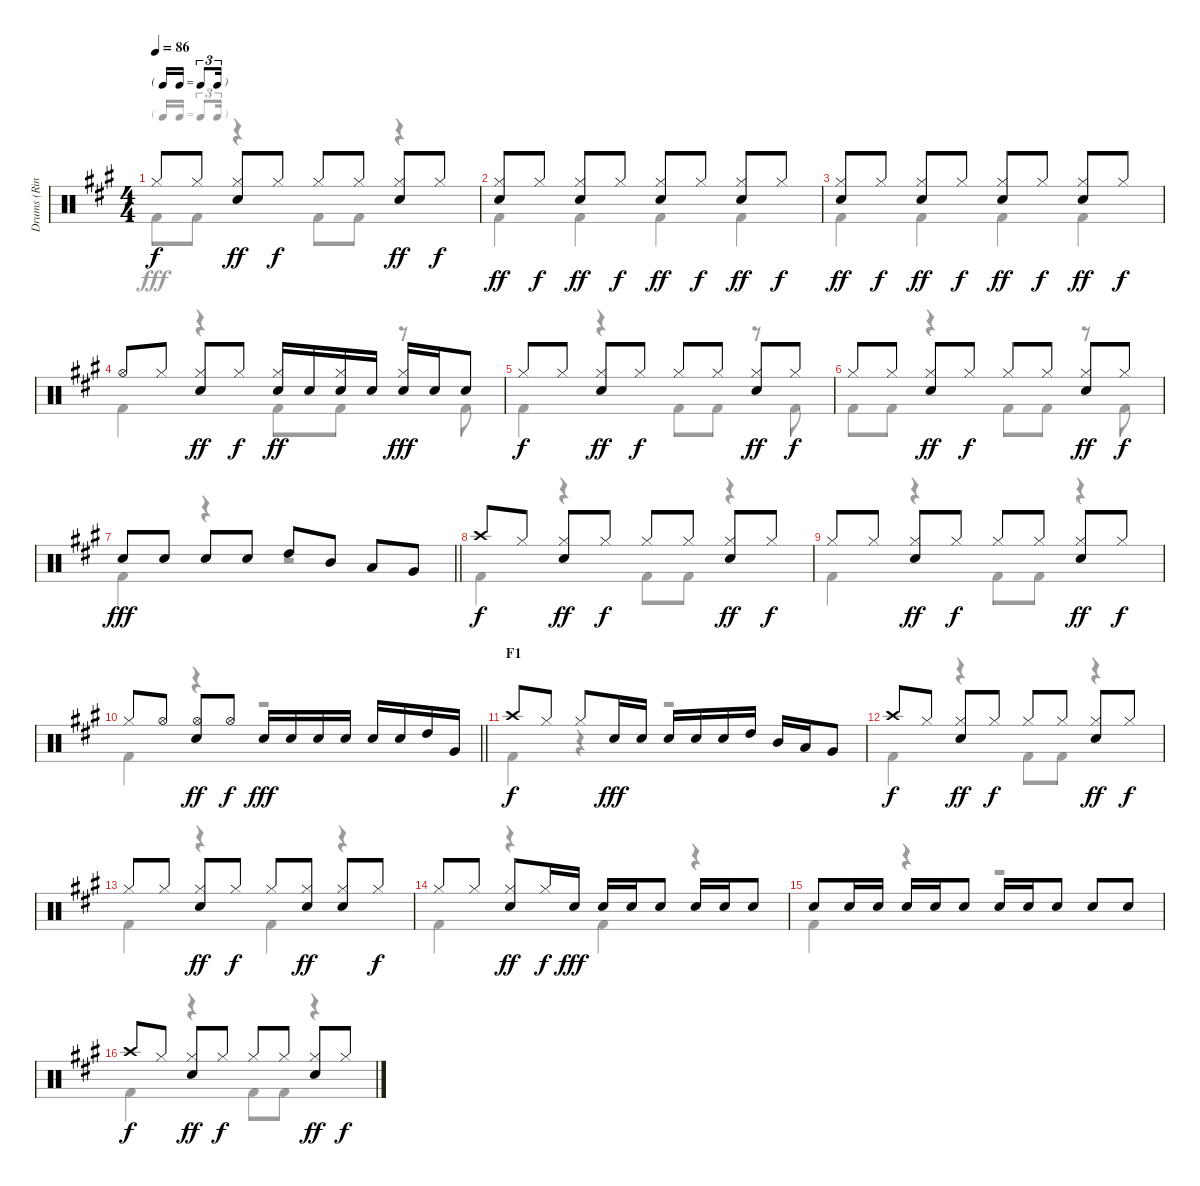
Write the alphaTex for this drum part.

\track ("Drums (Ringo Starr)" "Drums (Rin") {instrument percussion}
\staff {score}
\articulation defaults
\voice
\ts (4 4)
\tf triplet16th
\tempo 86
\clef neutral
\ks a "Hi-Hat (closed)".8{dy f} "Hi-Hat (closed)".8
("Hi-Hat (closed)" "Snare (hit) 2").8{dy ff} "Hi-Hat (closed)".8{dy f} "Hi-Hat (closed)".8 "Hi-Hat (closed)".8 ("Hi-Hat (closed)" "Snare (hit) 2").8{dy ff} "Hi-Hat (closed)".8{dy f} |
("Hi-Hat (closed)" "Snare (hit) 2").8{dy ff} "Hi-Hat (closed)".8{dy f} ("Hi-Hat (closed)" "Snare (hit) 2").8{dy ff} "Hi-Hat (closed)".8{dy f} ("Hi-Hat (closed)" "Snare (hit) 2").8{dy ff} "Hi-Hat (closed)".8{dy f} ("Hi-Hat (closed)" "Snare (hit) 2").8{dy ff} "Hi-Hat (closed)".8{dy f} |
("Hi-Hat (closed)" "Snare (hit) 2").8{dy ff} "Hi-Hat (closed)".8{dy f} ("Hi-Hat (closed)" "Snare (hit) 2").8{dy ff} "Hi-Hat (closed)".8{dy f} ("Hi-Hat (closed)" "Snare (hit) 2").8{dy ff} "Hi-Hat (closed)".8{dy f} ("Hi-Hat (closed)" "Snare (hit) 2").8{dy ff} "Hi-Hat (closed)".8{dy f} |
"Hi-Hat (open)".8 "Hi-Hat (closed)".8 ("Hi-Hat (closed)" "Snare (hit) 2").8{dy ff} "Hi-Hat (closed)".8{dy f} ("Hi-Hat (closed)" "Snare (hit) 2").16{dy ff} "Snare (hit) 2".16 ("Hi-Hat (closed)" "Snare (hit) 2").16 "Snare (hit) 2".16 ("Hi-Hat (closed)" "Snare (hit) 2").16{dy fff} "Snare (hit) 2".16 "Snare (hit) 2".8 |
"Hi-Hat (closed)".8{dy f} "Hi-Hat (closed)".8 ("Hi-Hat (closed)" "Snare (hit) 2").8{dy ff} "Hi-Hat (closed)".8{dy f} "Hi-Hat (closed)".8 "Hi-Hat (closed)".8 ("Hi-Hat (closed)" "Snare (hit) 2").8{dy ff} "Hi-Hat (closed)".8{dy f} |
"Hi-Hat (closed)".8 "Hi-Hat (closed)".8 ("Hi-Hat (closed)" "Snare (hit) 2").8{dy ff} "Hi-Hat (closed)".8{dy f} "Hi-Hat (closed)".8 "Hi-Hat (closed)".8 ("Hi-Hat (closed)" "Snare (hit) 2").8{dy ff} "Hi-Hat (closed)".8{dy f} |
\barLineRight lightlight "Snare (hit) 2".8{dy fff} "Snare (hit) 2".8 "Snare (hit) 2".8 "Snare (hit) 2".8 "High Tom (hit)".8 "Mid Tom (hit)".8 "Low Tom (hit)".8 "Very Low Tom (hit)".8
|
"Crash high (hit)".8{dy f} "Hi-Hat (closed)".8 ("Hi-Hat (closed)" "Snare (hit) 2").8{dy ff} "Hi-Hat (closed)".8{dy f} "Hi-Hat (closed)".8 "Hi-Hat (closed)".8 ("Hi-Hat (closed)" "Snare (hit) 2").8{dy ff} "Hi-Hat (closed)".8{dy f} |
"Hi-Hat (closed)".8 "Hi-Hat (closed)".8 ("Hi-Hat (closed)" "Snare (hit) 2").8{dy ff} "Hi-Hat (closed)".8{dy f} "Hi-Hat (closed)".8 "Hi-Hat (closed)".8 ("Hi-Hat (closed)" "Snare (hit) 2").8{dy ff} "Hi-Hat (closed)".8{dy f} |
\barLineRight lightlight "Hi-Hat (closed)".8 "Hi-Hat (open)".8
("Hi-Hat (open)" "Snare (hit) 2").8{dy ff} "Hi-Hat (open)".8{dy f} "Snare (hit) 2".16{dy fff} "Snare (hit) 2".16 "Snare (hit) 2".16 "Snare (hit) 2".16 "Snare (hit) 2".16 "Snare (hit) 2".16 "High Tom (hit)".16 "Very Low Tom (hit)".16 |
\section ("" "F1")
"Crash high (hit)".8{dy f volume 14} "Hi-Hat (closed)".8 "Hi-Hat (closed)".8 "Snare (hit) 2".16{dy fff} "Snare (hit) 2".16 "Snare (hit) 2".16 "Snare (hit) 2".16 "Snare (hit) 2".16 "High Tom (hit)".16 "Mid Tom (hit)".16 "Low Tom (hit)".16 "Very Low Tom (hit)".8 |
"Crash high (hit)".8{dy f} "Hi-Hat (closed)".8 ("Hi-Hat (closed)" "Snare (hit) 2").8{dy ff} "Hi-Hat (closed)".8{dy f} "Hi-Hat (closed)".8 "Hi-Hat (closed)".8 ("Hi-Hat (closed)" "Snare (hit) 2").8{dy ff} "Hi-Hat (closed)".8{dy f} |
"Hi-Hat (closed)".8 "Hi-Hat (closed)".8 ("Hi-Hat (closed)" "Snare (hit) 2").8{dy ff} "Hi-Hat (closed)".8{dy f} "Hi-Hat (closed)".8 ("Hi-Hat (closed)" "Snare (hit) 2").8{dy ff} ("Hi-Hat (closed)" "Snare (hit) 2").8{volume 12} "Hi-Hat (closed)".8{dy f} |
"Hi-Hat (closed)".8 "Hi-Hat (closed)".8 ("Hi-Hat (closed)" "Snare (hit) 2").8{dy ff} "Hi-Hat (closed)".16{dy f} "Snare (hit) 2".16{dy fff} "Snare (hit) 2".16 "Snare (hit) 2".16 "Snare (hit) 2".8 "Snare (hit) 2".16 "Snare (hit) 2".16 "Snare (hit) 2".8 |
"Snare (hit) 2".8 "Snare (hit) 2".16 "Snare (hit) 2".16 "Snare (hit) 2".16 "Snare (hit) 2".16 "Snare (hit) 2".8 "Snare (hit) 2".16 "Snare (hit) 2".16 "Snare (hit) 2".8 "Snare (hit) 2".8 "Snare (hit) 2".8 |
"Crash high (hit)".8{dy f} "Hi-Hat (closed)".8 ("Hi-Hat (closed)" "Snare (hit) 2").8{dy ff} "Hi-Hat (closed)".8{dy f} "Hi-Hat (closed)".8{volume 10} "Hi-Hat (closed)".8 ("Hi-Hat (closed)" "Snare (hit) 2").8{dy ff} "Hi-Hat (closed)".8{dy f}
\voice
\clef neutral
\ottava regular
\simile none
\ks a "Kick (hit) 2".8{dy fff} "Kick (hit) 2".8
r.4 "Kick (hit) 2".8 "Kick (hit) 2".8 r.4 |
"Kick (hit) 2".4 "Kick (hit) 2".4 "Kick (hit) 2".4 "Kick (hit) 2".4 |
"Kick (hit) 2".4 "Kick (hit) 2".4 "Kick (hit) 2".4 "Kick (hit) 2".4 |
"Kick (hit) 2".4 r.4 "Kick (hit) 2".8 "Kick (hit) 2".8 r.8 "Kick (hit) 2".8 |
"Kick (hit) 2".4 r.4 "Kick (hit) 2".8 "Kick (hit) 2".8 r.8 "Kick (hit) 2".8 |
"Kick (hit) 2".8 "Kick (hit) 2".8 r.4 "Kick (hit) 2".8 "Kick (hit) 2".8 r.8 "Kick (hit) 2".8 |
\barLineRight lightlight "Kick (hit) 2".4
r.4 r.2 |
"Kick (hit) 2".4 r.4 "Kick (hit) 2".8 "Kick (hit) 2".8 r.4 |
"Kick (hit) 2".4 r.4 "Kick (hit) 2".8 "Kick (hit) 2".8 r.4 |
\barLineRight lightlight "Kick (hit) 2".4
r.4 r.2 |
"Kick (hit) 2".4 r.4 r.2 |
"Kick (hit) 2".4 r.4 "Kick (hit) 2".8 "Kick (hit) 2".8 r.4 |
"Kick (hit) 2".4 r.4 "Kick (hit) 2".4 r.4 |
"Kick (hit) 2".4 r.4 "Kick (hit) 2".4 r.4 |
"Kick (hit) 2".4 r.4 r.2 |
"Kick (hit) 2".4 r.4 "Kick (hit) 2".8 "Kick (hit) 2".8 r.4
